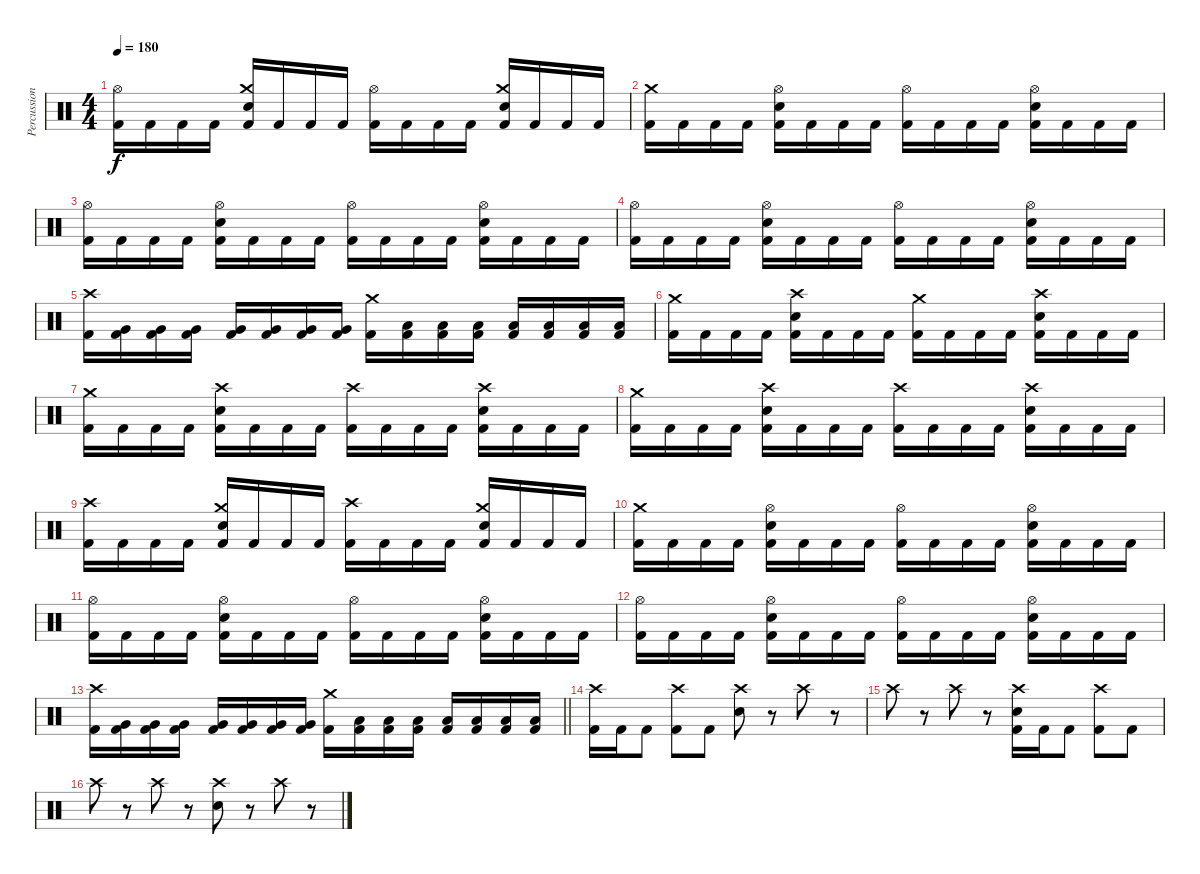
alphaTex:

\track ("Percussion" "Percussion") {instrument percussion}
\staff {score}
\articulation defaults
\ts (4 4)
\tempo 180
\clef neutral
\ks c
("Hi-Hat (open)" "Kick (hit) 2").16{dy f} "Kick (hit) 2".16 "Kick (hit) 2".16 "Kick (hit) 2".16 ("Crash medium (hit)" "Snare (hit) 2" "Kick (hit) 2").16 "Kick (hit) 2".16 "Kick (hit) 2".16 "Kick (hit) 2".16 ("Hi-Hat (open)" "Kick (hit) 2").16 "Kick (hit) 2".16 "Kick (hit) 2".16 "Kick (hit) 2".16 ("Crash medium (hit)" "Snare (hit) 2" "Kick (hit) 2").16 "Kick (hit) 2".16 "Kick (hit) 2".16 "Kick (hit) 2".16 |
("Crash medium (hit)" "Kick (hit) 2").16 "Kick (hit) 2".16 "Kick (hit) 2".16 "Kick (hit) 2".16 ("Hi-Hat (open)" "Snare (hit) 2" "Kick (hit) 2").16 "Kick (hit) 2".16 "Kick (hit) 2".16 "Kick (hit) 2".16 ("Hi-Hat (open)" "Kick (hit) 2").16 "Kick (hit) 2".16 "Kick (hit) 2".16 "Kick (hit) 2".16 ("Hi-Hat (open)" "Snare (hit) 2" "Kick (hit) 2").16 "Kick (hit) 2".16 "Kick (hit) 2".16 "Kick (hit) 2".16 |
("Hi-Hat (open)" "Kick (hit) 2").16 "Kick (hit) 2".16 "Kick (hit) 2".16 "Kick (hit) 2".16 ("Hi-Hat (open)" "Snare (hit) 2" "Kick (hit) 2").16 "Kick (hit) 2".16 "Kick (hit) 2".16 "Kick (hit) 2".16 ("Hi-Hat (open)" "Kick (hit) 2").16 "Kick (hit) 2".16 "Kick (hit) 2".16 "Kick (hit) 2".16 ("Hi-Hat (open)" "Snare (hit) 2" "Kick (hit) 2").16 "Kick (hit) 2".16 "Kick (hit) 2".16 "Kick (hit) 2".16 |
("Hi-Hat (open)" "Kick (hit) 2").16 "Kick (hit) 2".16 "Kick (hit) 2".16 "Kick (hit) 2".16 ("Hi-Hat (open)" "Snare (hit) 2" "Kick (hit) 2").16 "Kick (hit) 2".16 "Kick (hit) 2".16 "Kick (hit) 2".16 ("Hi-Hat (open)" "Kick (hit) 2").16 "Kick (hit) 2".16 "Kick (hit) 2".16 "Kick (hit) 2".16 ("Hi-Hat (open)" "Snare (hit) 2" "Kick (hit) 2").16 "Kick (hit) 2".16 "Kick (hit) 2".16 "Kick (hit) 2".16 |
("Crash high (hit)" "Kick (hit) 2").16 ("Very Low Tom (hit)" "Kick (hit) 2").16 ("Very Low Tom (hit)" "Kick (hit) 2").16 ("Very Low Tom (hit)" "Kick (hit) 2").16 ("Very Low Tom (hit)" "Kick (hit) 2").16 ("Very Low Tom (hit)" "Kick (hit) 2").16 ("Very Low Tom (hit)" "Kick (hit) 2").16 ("Very Low Tom (hit)" "Kick (hit) 2").16 ("Crash medium (hit)" "Kick (hit) 2").16 ("Low Tom (hit)" "Kick (hit) 2").16 ("Low Tom (hit)" "Kick (hit) 2").16 ("Low Tom (hit)" "Kick (hit) 2").16 ("Low Tom (hit)" "Kick (hit) 2").16 ("Low Tom (hit)" "Kick (hit) 2").16 ("Low Tom (hit)" "Kick (hit) 2").16 ("Low Tom (hit)" "Kick (hit) 2").16 |
("Crash medium (hit)" "Kick (hit) 2").16 "Kick (hit) 2".16 "Kick (hit) 2".16 "Kick (hit) 2".16 ("Crash high (hit)" "Snare (hit) 2" "Kick (hit) 2").16 "Kick (hit) 2".16 "Kick (hit) 2".16 "Kick (hit) 2".16 ("Crash medium (hit)" "Kick (hit) 2").16 "Kick (hit) 2".16 "Kick (hit) 2".16 "Kick (hit) 2".16 ("Crash high (hit)" "Snare (hit) 2" "Kick (hit) 2").16 "Kick (hit) 2".16 "Kick (hit) 2".16 "Kick (hit) 2".16 |
("Crash medium (hit)" "Kick (hit) 2").16 "Kick (hit) 2".16 "Kick (hit) 2".16 "Kick (hit) 2".16 ("Crash high (hit)" "Snare (hit) 2" "Kick (hit) 2").16 "Kick (hit) 2".16 "Kick (hit) 2".16 "Kick (hit) 2".16 ("Crash high (hit)" "Kick (hit) 2").16 "Kick (hit) 2".16 "Kick (hit) 2".16 "Kick (hit) 2".16 ("Crash high (hit)" "Snare (hit) 2" "Kick (hit) 2").16 "Kick (hit) 2".16 "Kick (hit) 2".16 "Kick (hit) 2".16 |
("Crash medium (hit)" "Kick (hit) 2").16 "Kick (hit) 2".16 "Kick (hit) 2".16 "Kick (hit) 2".16 ("Crash high (hit)" "Snare (hit) 2" "Kick (hit) 2").16 "Kick (hit) 2".16 "Kick (hit) 2".16 "Kick (hit) 2".16 ("Crash high (hit)" "Kick (hit) 2").16 "Kick (hit) 2".16 "Kick (hit) 2".16 "Kick (hit) 2".16 ("Crash high (hit)" "Snare (hit) 2" "Kick (hit) 2").16 "Kick (hit) 2".16 "Kick (hit) 2".16 "Kick (hit) 2".16 |
("Crash high (hit)" "Kick (hit) 2").16 "Kick (hit) 2".16 "Kick (hit) 2".16 "Kick (hit) 2".16 ("Crash medium (hit)" "Snare (hit) 2" "Kick (hit) 2").16 "Kick (hit) 2".16 "Kick (hit) 2".16 "Kick (hit) 2".16 ("Crash high (hit)" "Kick (hit) 2").16 "Kick (hit) 2".16 "Kick (hit) 2".16 "Kick (hit) 2".16 ("Crash medium (hit)" "Snare (hit) 2" "Kick (hit) 2").16 "Kick (hit) 2".16 "Kick (hit) 2".16 "Kick (hit) 2".16 |
("Crash medium (hit)" "Kick (hit) 2").16 "Kick (hit) 2".16 "Kick (hit) 2".16 "Kick (hit) 2".16 ("Hi-Hat (open)" "Snare (hit) 2" "Kick (hit) 2").16 "Kick (hit) 2".16 "Kick (hit) 2".16 "Kick (hit) 2".16 ("Hi-Hat (open)" "Kick (hit) 2").16 "Kick (hit) 2".16 "Kick (hit) 2".16 "Kick (hit) 2".16 ("Hi-Hat (open)" "Snare (hit) 2" "Kick (hit) 2").16 "Kick (hit) 2".16 "Kick (hit) 2".16 "Kick (hit) 2".16 |
("Hi-Hat (open)" "Kick (hit) 2").16 "Kick (hit) 2".16 "Kick (hit) 2".16 "Kick (hit) 2".16 ("Hi-Hat (open)" "Snare (hit) 2" "Kick (hit) 2").16 "Kick (hit) 2".16 "Kick (hit) 2".16 "Kick (hit) 2".16 ("Hi-Hat (open)" "Kick (hit) 2").16 "Kick (hit) 2".16 "Kick (hit) 2".16 "Kick (hit) 2".16 ("Hi-Hat (open)" "Snare (hit) 2" "Kick (hit) 2").16 "Kick (hit) 2".16 "Kick (hit) 2".16 "Kick (hit) 2".16 |
("Hi-Hat (open)" "Kick (hit) 2").16 "Kick (hit) 2".16 "Kick (hit) 2".16 "Kick (hit) 2".16 ("Hi-Hat (open)" "Snare (hit) 2" "Kick (hit) 2").16 "Kick (hit) 2".16 "Kick (hit) 2".16 "Kick (hit) 2".16 ("Hi-Hat (open)" "Kick (hit) 2").16 "Kick (hit) 2".16 "Kick (hit) 2".16 "Kick (hit) 2".16 ("Hi-Hat (open)" "Snare (hit) 2" "Kick (hit) 2").16 "Kick (hit) 2".16 "Kick (hit) 2".16 "Kick (hit) 2".16 |
\barLineRight lightlight
("Crash high (hit)" "Kick (hit) 2").16 ("Very Low Tom (hit)" "Kick (hit) 2").16 ("Very Low Tom (hit)" "Kick (hit) 2").16 ("Very Low Tom (hit)" "Kick (hit) 2").16 ("Very Low Tom (hit)" "Kick (hit) 2").16 ("Very Low Tom (hit)" "Kick (hit) 2").16 ("Very Low Tom (hit)" "Kick (hit) 2").16 ("Very Low Tom (hit)" "Kick (hit) 2").16 ("Crash medium (hit)" "Kick (hit) 2").16 ("Low Tom (hit)" "Kick (hit) 2").16 ("Low Tom (hit)" "Kick (hit) 2").16 ("Low Tom (hit)" "Kick (hit) 2").16 ("Low Tom (hit)" "Kick (hit) 2").16 ("Low Tom (hit)" "Kick (hit) 2").16 ("Low Tom (hit)" "Kick (hit) 2").16 ("Low Tom (hit)" "Kick (hit) 2").16 |
("Crash high (hit)" "Kick (hit) 2").16 "Kick (hit) 2".16 "Kick (hit) 2".8 ("Crash high (hit)" "Kick (hit) 2").8 "Kick (hit) 2".8 ("Crash high (hit)" "Snare (hit) 2").8 r.8 "Crash high (hit)".8 r.8 |
"Crash high (hit)".8 r.8 "Crash high (hit)".8 r.8 ("Crash high (hit)" "Snare (hit) 2" "Kick (hit) 2").16 "Kick (hit) 2".16 "Kick (hit) 2".8 ("Crash high (hit)" "Kick (hit) 2").8 "Kick (hit) 2".8 |
"Crash high (hit)".8 r.8 "Crash high (hit)".8 r.8 ("Crash high (hit)" "Snare (hit) 2").8 r.8 "Crash high (hit)".8 r.8
